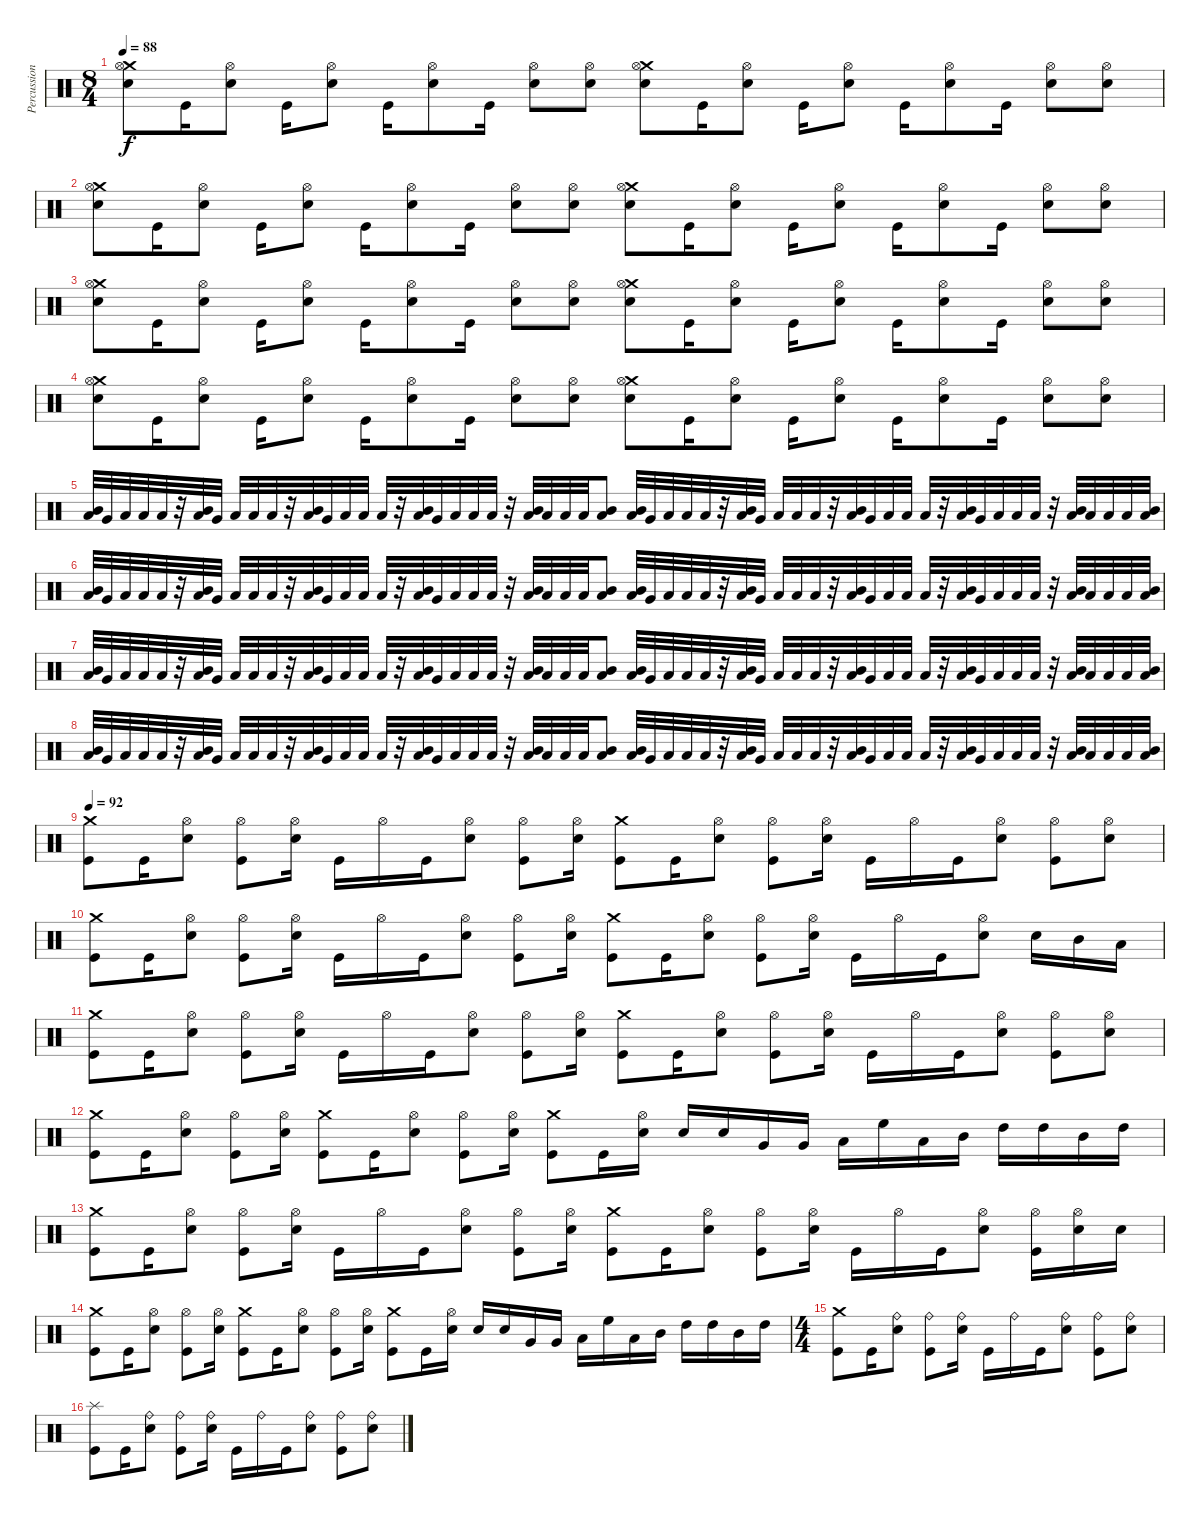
\track ("Percussion" "Percussion") {instrument percussion}
\staff {score}
\articulation defaults
\ts (8 4)
\tempo 88
\clef neutral
\ks c
("Crash medium (hit)" "Hi-Hat (open)" "Snare (hit) 2").8{dy f} "Kick (hit)".16 ("Hi-Hat (open)" "Snare (hit) 2").8 "Kick (hit)".16 ("Hi-Hat (open)" "Snare (hit) 2").8 "Kick (hit)".16 ("Hi-Hat (open)" "Snare (hit) 2").8 "Kick (hit)".16 ("Hi-Hat (open)" "Snare (hit) 2").8 ("Hi-Hat (open)" "Snare (hit) 2").8 ("Crash medium (hit)" "Hi-Hat (open)" "Snare (hit) 2").8 "Kick (hit)".16 ("Hi-Hat (open)" "Snare (hit) 2").8 "Kick (hit)".16 ("Hi-Hat (open)" "Snare (hit) 2").8 "Kick (hit)".16 ("Hi-Hat (open)" "Snare (hit) 2").8 "Kick (hit)".16 ("Hi-Hat (open)" "Snare (hit) 2").8 ("Hi-Hat (open)" "Snare (hit) 2").8 |
("Crash medium (hit)" "Hi-Hat (open)" "Snare (hit) 2").8 "Kick (hit)".16 ("Hi-Hat (open)" "Snare (hit) 2").8 "Kick (hit)".16 ("Hi-Hat (open)" "Snare (hit) 2").8 "Kick (hit)".16 ("Hi-Hat (open)" "Snare (hit) 2").8 "Kick (hit)".16 ("Hi-Hat (open)" "Snare (hit) 2").8 ("Hi-Hat (open)" "Snare (hit) 2").8 ("Crash medium (hit)" "Hi-Hat (open)" "Snare (hit) 2").8 "Kick (hit)".16 ("Hi-Hat (open)" "Snare (hit) 2").8 "Kick (hit)".16 ("Hi-Hat (open)" "Snare (hit) 2").8 "Kick (hit)".16 ("Hi-Hat (open)" "Snare (hit) 2").8 "Kick (hit)".16 ("Hi-Hat (open)" "Snare (hit) 2").8 ("Hi-Hat (open)" "Snare (hit) 2").8 |
("Crash medium (hit)" "Hi-Hat (open)" "Snare (hit) 2").8 "Kick (hit)".16 ("Hi-Hat (open)" "Snare (hit) 2").8 "Kick (hit)".16 ("Hi-Hat (open)" "Snare (hit) 2").8 "Kick (hit)".16 ("Hi-Hat (open)" "Snare (hit) 2").8 "Kick (hit)".16 ("Hi-Hat (open)" "Snare (hit) 2").8 ("Hi-Hat (open)" "Snare (hit) 2").8 ("Crash medium (hit)" "Hi-Hat (open)" "Snare (hit) 2").8 "Kick (hit)".16 ("Hi-Hat (open)" "Snare (hit) 2").8 "Kick (hit)".16 ("Hi-Hat (open)" "Snare (hit) 2").8 "Kick (hit)".16 ("Hi-Hat (open)" "Snare (hit) 2").8 "Kick (hit)".16 ("Hi-Hat (open)" "Snare (hit) 2").8 ("Hi-Hat (open)" "Snare (hit) 2").8 |
("Crash medium (hit)" "Hi-Hat (open)" "Snare (hit) 2").8 "Kick (hit)".16 ("Hi-Hat (open)" "Snare (hit) 2").8 "Kick (hit)".16 ("Hi-Hat (open)" "Snare (hit) 2").8 "Kick (hit)".16 ("Hi-Hat (open)" "Snare (hit) 2").8 "Kick (hit)".16 ("Hi-Hat (open)" "Snare (hit) 2").8 ("Hi-Hat (open)" "Snare (hit) 2").8 ("Crash medium (hit)" "Hi-Hat (open)" "Snare (hit) 2").8 "Kick (hit)".16 ("Hi-Hat (open)" "Snare (hit) 2").8 "Kick (hit)".16 ("Hi-Hat (open)" "Snare (hit) 2").8 "Kick (hit)".16 ("Hi-Hat (open)" "Snare (hit) 2").8 "Kick (hit)".16 ("Hi-Hat (open)" "Snare (hit) 2").8 ("Hi-Hat (open)" "Snare (hit) 2").8 |
("Mid Tom (hit)" "Low Tom (hit)").32 "Very Low Tom (hit)".32 "Low Tom (hit)".32 "Low Tom (hit)".32 "Low Tom (hit)".32 r.32 ("Mid Tom (hit)" "Low Tom (hit)").32 "Very Low Tom (hit)".32 "Low Tom (hit)".32 "Low Tom (hit)".32 "Low Tom (hit)".32 r.32 ("Mid Tom (hit)" "Low Tom (hit)").32 "Very Low Tom (hit)".32 "Low Tom (hit)".32 "Low Tom (hit)".32 "Low Tom (hit)".32 r.32 ("Mid Tom (hit)" "Low Tom (hit)").32 "Very Low Tom (hit)".32 "Low Tom (hit)".32 "Low Tom (hit)".32 "Low Tom (hit)".32 r.32 ("Mid Tom (hit)" "Low Tom (hit)").32 "Low Tom (hit)".32 "Low Tom (hit)".32 "Low Tom (hit)".32 ("Mid Tom (hit)" "Low Tom (hit)").8 ("Mid Tom (hit)" "Low Tom (hit)").32 "Very Low Tom (hit)".32 "Low Tom (hit)".32 "Low Tom (hit)".32 "Low Tom (hit)".32 r.32 ("Mid Tom (hit)" "Low Tom (hit)").32 "Very Low Tom (hit)".32 "Low Tom (hit)".32 "Low Tom (hit)".32 "Low Tom (hit)".32 r.32 ("Mid Tom (hit)" "Low Tom (hit)").32 "Very Low Tom (hit)".32 "Low Tom (hit)".32 "Low Tom (hit)".32 "Low Tom (hit)".32 r.32 ("Mid Tom (hit)" "Low Tom (hit)").32 "Very Low Tom (hit)".32 "Low Tom (hit)".32 "Low Tom (hit)".32 "Low Tom (hit)".32 r.32 ("Mid Tom (hit)" "Low Tom (hit)").32 "Low Tom (hit)".32 "Low Tom (hit)".32 "Low Tom (hit)".32 ("Mid Tom (hit)" "Low Tom (hit)").32 |
("Mid Tom (hit)" "Low Tom (hit)").32 "Very Low Tom (hit)".32 "Low Tom (hit)".32 "Low Tom (hit)".32 "Low Tom (hit)".32 r.32 ("Mid Tom (hit)" "Low Tom (hit)").32 "Very Low Tom (hit)".32 "Low Tom (hit)".32 "Low Tom (hit)".32 "Low Tom (hit)".32 r.32 ("Mid Tom (hit)" "Low Tom (hit)").32 "Very Low Tom (hit)".32 "Low Tom (hit)".32 "Low Tom (hit)".32 "Low Tom (hit)".32 r.32 ("Mid Tom (hit)" "Low Tom (hit)").32 "Very Low Tom (hit)".32 "Low Tom (hit)".32 "Low Tom (hit)".32 "Low Tom (hit)".32 r.32 ("Mid Tom (hit)" "Low Tom (hit)").32 "Low Tom (hit)".32 "Low Tom (hit)".32 "Low Tom (hit)".32 ("Mid Tom (hit)" "Low Tom (hit)").8 ("Mid Tom (hit)" "Low Tom (hit)").32 "Very Low Tom (hit)".32 "Low Tom (hit)".32 "Low Tom (hit)".32 "Low Tom (hit)".32 r.32 ("Mid Tom (hit)" "Low Tom (hit)").32 "Very Low Tom (hit)".32 "Low Tom (hit)".32 "Low Tom (hit)".32 "Low Tom (hit)".32 r.32 ("Mid Tom (hit)" "Low Tom (hit)").32 "Very Low Tom (hit)".32 "Low Tom (hit)".32 "Low Tom (hit)".32 "Low Tom (hit)".32 r.32 ("Mid Tom (hit)" "Low Tom (hit)").32 "Very Low Tom (hit)".32 "Low Tom (hit)".32 "Low Tom (hit)".32 "Low Tom (hit)".32 r.32 ("Mid Tom (hit)" "Low Tom (hit)").32 "Low Tom (hit)".32 "Low Tom (hit)".32 "Low Tom (hit)".32 ("Mid Tom (hit)" "Low Tom (hit)").32 |
("Mid Tom (hit)" "Low Tom (hit)").32 "Very Low Tom (hit)".32 "Low Tom (hit)".32 "Low Tom (hit)".32 "Low Tom (hit)".32 r.32 ("Mid Tom (hit)" "Low Tom (hit)").32 "Very Low Tom (hit)".32 "Low Tom (hit)".32 "Low Tom (hit)".32 "Low Tom (hit)".32 r.32 ("Mid Tom (hit)" "Low Tom (hit)").32 "Very Low Tom (hit)".32 "Low Tom (hit)".32 "Low Tom (hit)".32 "Low Tom (hit)".32 r.32 ("Mid Tom (hit)" "Low Tom (hit)").32 "Very Low Tom (hit)".32 "Low Tom (hit)".32 "Low Tom (hit)".32 "Low Tom (hit)".32 r.32 ("Mid Tom (hit)" "Low Tom (hit)").32 "Low Tom (hit)".32 "Low Tom (hit)".32 "Low Tom (hit)".32 ("Mid Tom (hit)" "Low Tom (hit)").8 ("Mid Tom (hit)" "Low Tom (hit)").32 "Very Low Tom (hit)".32 "Low Tom (hit)".32 "Low Tom (hit)".32 "Low Tom (hit)".32 r.32 ("Mid Tom (hit)" "Low Tom (hit)").32 "Very Low Tom (hit)".32 "Low Tom (hit)".32 "Low Tom (hit)".32 "Low Tom (hit)".32 r.32 ("Mid Tom (hit)" "Low Tom (hit)").32 "Very Low Tom (hit)".32 "Low Tom (hit)".32 "Low Tom (hit)".32 "Low Tom (hit)".32 r.32 ("Mid Tom (hit)" "Low Tom (hit)").32 "Very Low Tom (hit)".32 "Low Tom (hit)".32 "Low Tom (hit)".32 "Low Tom (hit)".32 r.32 ("Mid Tom (hit)" "Low Tom (hit)").32 "Low Tom (hit)".32 "Low Tom (hit)".32 "Low Tom (hit)".32 ("Mid Tom (hit)" "Low Tom (hit)").32 |
("Mid Tom (hit)" "Low Tom (hit)").32 "Very Low Tom (hit)".32 "Low Tom (hit)".32 "Low Tom (hit)".32 "Low Tom (hit)".32 r.32 ("Mid Tom (hit)" "Low Tom (hit)").32 "Very Low Tom (hit)".32 "Low Tom (hit)".32 "Low Tom (hit)".32 "Low Tom (hit)".32 r.32 ("Mid Tom (hit)" "Low Tom (hit)").32 "Very Low Tom (hit)".32 "Low Tom (hit)".32 "Low Tom (hit)".32 "Low Tom (hit)".32 r.32 ("Mid Tom (hit)" "Low Tom (hit)").32 "Very Low Tom (hit)".32 "Low Tom (hit)".32 "Low Tom (hit)".32 "Low Tom (hit)".32 r.32 ("Mid Tom (hit)" "Low Tom (hit)").32 "Low Tom (hit)".32 "Low Tom (hit)".32 "Low Tom (hit)".32 ("Mid Tom (hit)" "Low Tom (hit)").8 ("Mid Tom (hit)" "Low Tom (hit)").32 "Very Low Tom (hit)".32 "Low Tom (hit)".32 "Low Tom (hit)".32 "Low Tom (hit)".32 r.32 ("Mid Tom (hit)" "Low Tom (hit)").32 "Very Low Tom (hit)".32 "Low Tom (hit)".32 "Low Tom (hit)".32 "Low Tom (hit)".32 r.32 ("Mid Tom (hit)" "Low Tom (hit)").32 "Very Low Tom (hit)".32 "Low Tom (hit)".32 "Low Tom (hit)".32 "Low Tom (hit)".32 r.32 ("Mid Tom (hit)" "Low Tom (hit)").32 "Very Low Tom (hit)".32 "Low Tom (hit)".32 "Low Tom (hit)".32 "Low Tom (hit)".32 r.32 ("Mid Tom (hit)" "Low Tom (hit)").32 "Low Tom (hit)".32 "Low Tom (hit)".32 "Low Tom (hit)".32 ("Mid Tom (hit)" "Low Tom (hit)").32 |
\tempo 92
("Kick (hit)" "Crash medium (hit)").8 "Kick (hit)".16 ("Snare (hit) 2" "Hi-Hat (open)").8 ("Kick (hit)" "Hi-Hat (open)").8 ("Snare (hit) 2" "Hi-Hat (open)").16 "Kick (hit)".16 "Hi-Hat (open)".16 "Kick (hit)".16 ("Snare (hit) 2" "Hi-Hat (open)").8 ("Kick (hit)" "Hi-Hat (open)").8 ("Snare (hit) 2" "Hi-Hat (open)").16 ("Kick (hit)" "Crash medium (hit)").8 "Kick (hit)".16 ("Snare (hit) 2" "Hi-Hat (open)").8 ("Kick (hit)" "Hi-Hat (open)").8 ("Snare (hit) 2" "Hi-Hat (open)").16 "Kick (hit)".16 "Hi-Hat (open)".16 "Kick (hit)".16 ("Snare (hit) 2" "Hi-Hat (open)").8 ("Kick (hit)" "Hi-Hat (open)").8 ("Snare (hit) 2" "Hi-Hat (open)").8 |
("Kick (hit)" "Crash medium (hit)").8 "Kick (hit)".16 ("Snare (hit) 2" "Hi-Hat (open)").8 ("Kick (hit)" "Hi-Hat (open)").8 ("Snare (hit) 2" "Hi-Hat (open)").16 "Kick (hit)".16 "Hi-Hat (open)".16 "Kick (hit)".16 ("Snare (hit) 2" "Hi-Hat (open)").8 ("Kick (hit)" "Hi-Hat (open)").8 ("Snare (hit) 2" "Hi-Hat (open)").16 ("Kick (hit)" "Crash medium (hit)").8 "Kick (hit)".16 ("Snare (hit) 2" "Hi-Hat (open)").8 ("Kick (hit)" "Hi-Hat (open)").8 ("Snare (hit) 2" "Hi-Hat (open)").16 "Kick (hit)".16 "Hi-Hat (open)".16 "Kick (hit)".16 ("Snare (hit) 2" "Hi-Hat (open)").8 "Snare (hit) 2".16 "Mid Tom (hit)".16 "Low Tom (hit)".16 |
("Kick (hit)" "Crash medium (hit)").8 "Kick (hit)".16 ("Snare (hit) 2" "Hi-Hat (open)").8 ("Kick (hit)" "Hi-Hat (open)").8 ("Snare (hit) 2" "Hi-Hat (open)").16 "Kick (hit)".16 "Hi-Hat (open)".16 "Kick (hit)".16 ("Snare (hit) 2" "Hi-Hat (open)").8 ("Kick (hit)" "Hi-Hat (open)").8 ("Snare (hit) 2" "Hi-Hat (open)").16 ("Kick (hit)" "Crash medium (hit)").8 "Kick (hit)".16 ("Snare (hit) 2" "Hi-Hat (open)").8 ("Kick (hit)" "Hi-Hat (open)").8 ("Snare (hit) 2" "Hi-Hat (open)").16 "Kick (hit)".16 "Hi-Hat (open)".16 "Kick (hit)".16 ("Snare (hit) 2" "Hi-Hat (open)").8 ("Kick (hit)" "Hi-Hat (open)").8 ("Snare (hit) 2" "Hi-Hat (open)").8 |
("Kick (hit)" "Crash medium (hit)").8 "Kick (hit)".16 ("Snare (hit) 2" "Hi-Hat (open)").8 ("Kick (hit)" "Hi-Hat (open)").8 ("Snare (hit) 2" "Hi-Hat (open)").16 ("Kick (hit)" "Crash medium (hit)").8 "Kick (hit)".16 ("Snare (hit) 2" "Hi-Hat (open)").8 ("Kick (hit)" "Hi-Hat (open)").8 ("Snare (hit) 2" "Hi-Hat (open)").16 ("Kick (hit)" "Crash medium (hit)").8 "Kick (hit)".16 ("Snare (hit) 2" "Hi-Hat (open)").16 "Snare (hit) 2".16 "Snare (hit) 2".16 "Very Low Tom (hit)".16 "Very Low Tom (hit)".16 "Low Tom (hit)".16 "High Floor Tom (hit)".16 "Low Tom (hit)".16 "Mid Tom (hit)".16 "High Tom (hit)".16 "High Tom (hit)".16 "Mid Tom (hit)".16 "High Tom (hit)".16 |
("Kick (hit)" "Crash medium (hit)").8 "Kick (hit)".16 ("Snare (hit) 2" "Hi-Hat (open)").8 ("Kick (hit)" "Hi-Hat (open)").8 ("Snare (hit) 2" "Hi-Hat (open)").16 "Kick (hit)".16 "Hi-Hat (open)".16 "Kick (hit)".16 ("Snare (hit) 2" "Hi-Hat (open)").8 ("Kick (hit)" "Hi-Hat (open)").8 ("Snare (hit) 2" "Hi-Hat (open)").16 ("Kick (hit)" "Crash medium (hit)").8 "Kick (hit)".16 ("Snare (hit) 2" "Hi-Hat (open)").8 ("Kick (hit)" "Hi-Hat (open)").8 ("Snare (hit) 2" "Hi-Hat (open)").16 "Kick (hit)".16 "Hi-Hat (open)".16 "Kick (hit)".16 ("Snare (hit) 2" "Hi-Hat (open)").8 ("Kick (hit)" "Hi-Hat (open)").16 ("Snare (hit) 2" "Hi-Hat (open)").16 "Snare (hit) 2".16 |
("Kick (hit)" "Crash medium (hit)").8 "Kick (hit)".16 ("Snare (hit) 2" "Hi-Hat (open)").8 ("Kick (hit)" "Hi-Hat (open)").8 ("Snare (hit) 2" "Hi-Hat (open)").16 ("Kick (hit)" "Crash medium (hit)").8 "Kick (hit)".16 ("Snare (hit) 2" "Hi-Hat (open)").8 ("Kick (hit)" "Hi-Hat (open)").8 ("Snare (hit) 2" "Hi-Hat (open)").16 ("Kick (hit)" "Crash medium (hit)").8 "Kick (hit)".16 ("Snare (hit) 2" "Hi-Hat (open)").16 "Snare (hit) 2".16 "Snare (hit) 2".16 "Very Low Tom (hit)".16 "Very Low Tom (hit)".16 "Low Tom (hit)".16 "High Floor Tom (hit)".16 "Low Tom (hit)".16 "Mid Tom (hit)".16 "High Tom (hit)".16 "High Tom (hit)".16 "Mid Tom (hit)".16 "High Tom (hit)".16 |
\ts (4 4)
("Kick (hit)" "Crash medium (hit)").8 "Kick (hit)".16 ("Snare (hit) 2" "Ride (bell)").8 ("Kick (hit)" "Ride (bell)").8 ("Snare (hit) 2" "Ride (bell)").16 "Kick (hit)".16 "Ride (bell)".16 "Kick (hit)".16 ("Snare (hit) 2" "Ride (bell)").8 ("Kick (hit)" "Ride (bell)").8 ("Snare (hit) 2" "Ride (bell)").8 |
("Kick (hit)" "Splash (hit)").8 "Kick (hit)".16 ("Snare (hit) 2" "Ride (bell)").8 ("Kick (hit)" "Ride (bell)").8 ("Snare (hit) 2" "Ride (bell)").16 "Kick (hit)".16 "Ride (bell)".16 "Kick (hit)".16 ("Snare (hit) 2" "Ride (bell)").8 ("Kick (hit)" "Ride (bell)").8 ("Snare (hit) 2" "Ride (bell)").8
